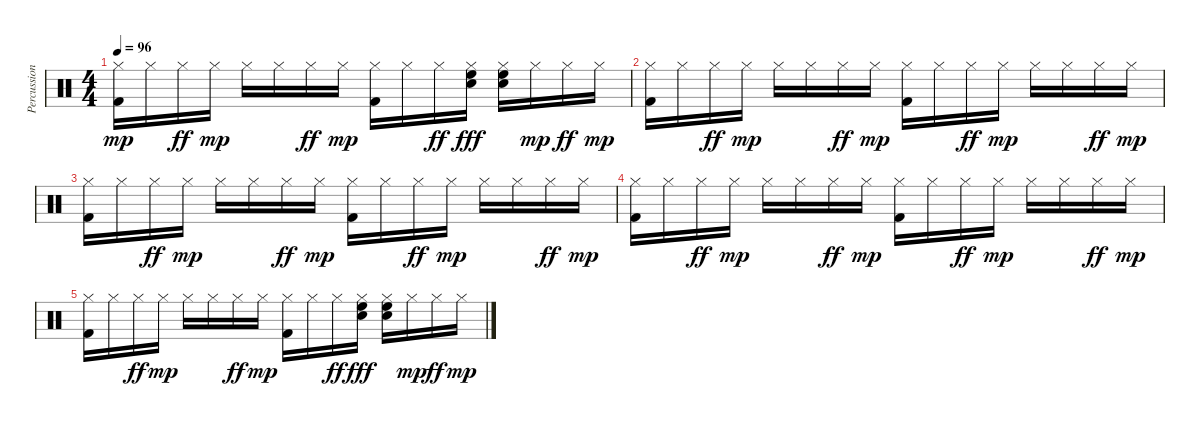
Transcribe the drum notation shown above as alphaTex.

\track ("Percussions" "Percussion") {instrument percussion}
\staff {score}
\articulation defaults
\ts (4 4)
\tempo 96
\clef neutral
\ks c
("Hi-Hat (closed)" "Kick (hit) 2").16{dy mp} "Hi-Hat (closed)".16 "Hi-Hat (closed)".16{dy ff} "Hi-Hat (closed)".16{dy mp} "Hi-Hat (closed)".16 "Hi-Hat (closed)".16 "Hi-Hat (closed)".16{dy ff} "Hi-Hat (closed)".16{dy mp} ("Hi-Hat (closed)" "Kick (hit) 2").16 "Hi-Hat (closed)".16 "Hi-Hat (closed)".16{dy ff} ("Hi-Hat (closed)" "Electric Snare (hit)" "High Floor Tom (hit)").16{dy fff} ("Hi-Hat (closed)" "Electric Snare (hit)" "High Floor Tom (hit)").16 "Hi-Hat (closed)".16{dy mp} "Hi-Hat (closed)".16{dy ff} "Hi-Hat (closed)".16{dy mp} |
("Hi-Hat (closed)" "Kick (hit) 2").16{volume 9} "Hi-Hat (closed)".16 "Hi-Hat (closed)".16{dy ff} "Hi-Hat (closed)".16{dy mp} "Hi-Hat (closed)".16 "Hi-Hat (closed)".16 "Hi-Hat (closed)".16{dy ff} "Hi-Hat (closed)".16{dy mp} ("Hi-Hat (closed)" "Kick (hit) 2").16 "Hi-Hat (closed)".16 "Hi-Hat (closed)".16{dy ff} "Hi-Hat (closed)".16{dy mp} "Hi-Hat (closed)".16 "Hi-Hat (closed)".16 "Hi-Hat (closed)".16{dy ff} "Hi-Hat (closed)".16{dy mp} |
("Hi-Hat (closed)" "Kick (hit) 2").16{volume 6} "Hi-Hat (closed)".16 "Hi-Hat (closed)".16{dy ff} "Hi-Hat (closed)".16{dy mp} "Hi-Hat (closed)".16 "Hi-Hat (closed)".16 "Hi-Hat (closed)".16{dy ff} "Hi-Hat (closed)".16{dy mp} ("Hi-Hat (closed)" "Kick (hit) 2").16 "Hi-Hat (closed)".16 "Hi-Hat (closed)".16{dy ff} "Hi-Hat (closed)".16{dy mp} "Hi-Hat (closed)".16 "Hi-Hat (closed)".16 "Hi-Hat (closed)".16{dy ff} "Hi-Hat (closed)".16{dy mp} |
("Hi-Hat (closed)" "Kick (hit) 2").16{volume 4} "Hi-Hat (closed)".16 "Hi-Hat (closed)".16{dy ff} "Hi-Hat (closed)".16{dy mp} "Hi-Hat (closed)".16 "Hi-Hat (closed)".16 "Hi-Hat (closed)".16{dy ff} "Hi-Hat (closed)".16{dy mp} ("Hi-Hat (closed)" "Kick (hit) 2").16 "Hi-Hat (closed)".16 "Hi-Hat (closed)".16{dy ff} "Hi-Hat (closed)".16{dy mp} "Hi-Hat (closed)".16 "Hi-Hat (closed)".16 "Hi-Hat (closed)".16{dy ff} "Hi-Hat (closed)".16{dy mp} |
("Hi-Hat (closed)" "Kick (hit) 2").16 "Hi-Hat (closed)".16 "Hi-Hat (closed)".16{dy ff} "Hi-Hat (closed)".16{dy mp} "Hi-Hat (closed)".16 "Hi-Hat (closed)".16 "Hi-Hat (closed)".16{dy ff} "Hi-Hat (closed)".16{dy mp} ("Hi-Hat (closed)" "Kick (hit) 2").16 "Hi-Hat (closed)".16 "Hi-Hat (closed)".16{dy ff} ("Hi-Hat (closed)" "Electric Snare (hit)" "High Floor Tom (hit)").16{dy fff} ("Hi-Hat (closed)" "Electric Snare (hit)" "High Floor Tom (hit)").16 "Hi-Hat (closed)".16{dy mp} "Hi-Hat (closed)".16{dy ff} "Hi-Hat (closed)".16{dy mp}
